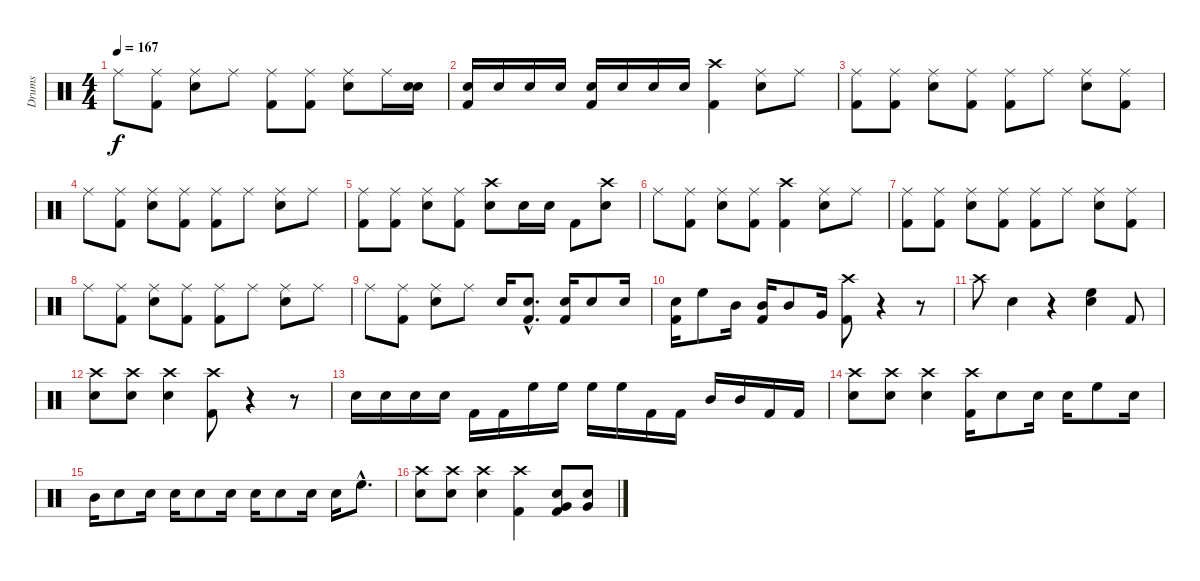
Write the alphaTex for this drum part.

\track ("Drums" "Drums") {instrument percussion}
\staff {score}
\articulation defaults
\ts (4 4)
\tempo 167
\clef neutral
\ks c "Ride (middle)".8{dy f}
("Kick (hit) 2" "Ride (middle)").8 ("Snare (hit) 2" "Ride (middle)").8 "Ride (middle)".8 ("Kick (hit) 2" "Ride (middle)").8 ("Kick (hit) 2" "Ride (middle)").8 ("Snare (hit) 2" "Ride (middle)").8 "Ride (middle)".16 ("Snare (hit)" "Snare (hit) 2").16 |
("Kick (hit) 2" "Snare (hit) 2").16 "Snare (hit) 2".16 "Snare (hit) 2".16 "Snare (hit) 2".16 ("Kick (hit) 2" "Snare (hit) 2").16 "Snare (hit) 2".16 "Snare (hit) 2".16 "Snare (hit) 2".16 ("Kick (hit) 2" "Crash high (hit)").4 ("Ride (middle)" "Snare (hit) 2").8 "Ride (middle)".8 |
("Ride (middle)" "Kick (hit) 2").8 ("Ride (middle)" "Kick (hit) 2").8 ("Ride (middle)" "Snare (hit) 2").8 ("Kick (hit) 2" "Ride (middle)").8 ("Kick (hit) 2" "Ride (middle)").8 "Ride (middle)".8 ("Snare (hit) 2" "Ride (middle)").8 ("Kick (hit) 2" "Ride (middle)").8 |
"Ride (middle)".8 ("Kick (hit) 2" "Ride (middle)").8 ("Snare (hit) 2" "Ride (middle)").8 ("Kick (hit) 2" "Ride (middle)").8 ("Kick (hit) 2" "Ride (middle)").8 "Ride (middle)".8 ("Snare (hit) 2" "Ride (middle)").8 "Ride (middle)".8 |
("Kick (hit) 2" "Ride (middle)").8 ("Kick (hit) 2" "Ride (middle)").8 ("Snare (hit) 2" "Ride (middle)").8 ("Kick (hit) 2" "Ride (middle)").8 ("Crash high (hit)" "Snare (hit) 2").8 "Snare (hit) 2".16 "Snare (hit) 2".16 "Kick (hit) 2".8 ("Crash high (hit)" "Snare (hit) 2").8 |
"Ride (middle)".8 ("Kick (hit) 2" "Ride (middle)").8 ("Snare (hit) 2" "Ride (middle)").8 ("Kick (hit) 2" "Ride (middle)").8 ("Kick (hit) 2" "Crash high (hit)").4 ("Ride (middle)" "Snare (hit) 2").8 "Ride (middle)".8 |
("Kick (hit) 2" "Ride (middle)").8 ("Ride (middle)" "Kick (hit) 2").8 ("Ride (middle)" "Snare (hit) 2").8 ("Ride (middle)" "Kick (hit) 2").8 ("Kick (hit) 2" "Ride (middle)").8 "Ride (middle)".8 ("Snare (hit) 2" "Ride (middle)").8 ("Kick (hit) 2" "Ride (middle)").8 |
"Ride (middle)".8 ("Kick (hit) 2" "Ride (middle)").8 ("Snare (hit) 2" "Ride (middle)").8 ("Kick (hit) 2" "Ride (middle)").8 ("Kick (hit) 2" "Ride (middle)").8 "Ride (middle)".8 ("Snare (hit) 2" "Ride (middle)").8 "Ride (middle)".8 |
"Ride (middle)".8 ("Kick (hit) 2" "Ride (middle)").8 ("Snare (hit) 2" "Ride (middle)").8 "Ride (middle)".8 "Snare (hit) 2".16 ("Snare (hit) 2"{hac} "Kick (hit) 2"{hac}).8{d} ("Snare (hit) 2" "Kick (hit) 2").16 "Snare (hit) 2".8 "Snare (hit) 2".16 |
("Snare (hit) 2" "Kick (hit) 2").16 "High Floor Tom (hit)".8 "Mid Tom (hit)".16 ("Mid Tom (hit)" "Kick (hit) 2").16 "Mid Tom (hit)".8 "Very Low Tom (hit)".16 ("Crash high (hit)" "Kick (hit) 2").8 r.4 r.8 |
"Crash high (hit)".8 "Snare (hit) 2".4 r.4 ("Snare (hit) 2" "High Floor Tom (hit)").4 "Kick (hit) 2".8 |
("Crash high (hit)" "Snare (hit) 2").8 ("Crash high (hit)" "Snare (hit) 2").8 ("Crash high (hit)" "Snare (hit) 2").4 ("Kick (hit) 2" "Crash high (hit)").8 r.4 r.8 |
"Snare (hit) 2".16 "Snare (hit) 2".16 "Snare (hit) 2".16 "Snare (hit) 2".16 "Kick (hit) 2".16 "Kick (hit) 2".16 "High Floor Tom (hit)".16 "High Floor Tom (hit)".16 "High Floor Tom (hit)".16 "High Floor Tom (hit)".16 "Kick (hit) 2".16 "Kick (hit) 2".16 "Mid Tom (hit)".16 "Mid Tom (hit)".16 "Kick (hit) 2".16 "Kick (hit) 2".16 |
("Crash high (hit)" "Snare (hit) 2").8 ("Crash high (hit)" "Snare (hit) 2").8 ("Crash high (hit)" "Snare (hit) 2").4 ("Crash high (hit)" "Kick (hit) 2").16 "Snare (hit) 2".8 "Snare (hit) 2".16 "Snare (hit) 2".16 "High Floor Tom (hit)".8 "Snare (hit) 2".16 |
"Mid Tom (hit)".16 "Snare (hit) 2".8 "Snare (hit) 2".16 "Snare (hit) 2".16 "Snare (hit) 2".8 "Snare (hit) 2".16 "Snare (hit) 2".16 "Snare (hit) 2".8 "Snare (hit) 2".16 "Snare (hit) 2".16 "High Floor Tom (hit)"{hac}.8{d} |
("Crash high (hit)" "Snare (hit) 2").8 ("Crash high (hit)" "Snare (hit) 2").8 ("Crash high (hit)" "Snare (hit) 2").4 ("Crash high (hit)" "Kick (hit) 2").4 ("Kick (hit) 2" "Snare (hit) 2" "Very Low Tom (hit)").8 ("Snare (hit) 2" "Very Low Tom (hit)").8
